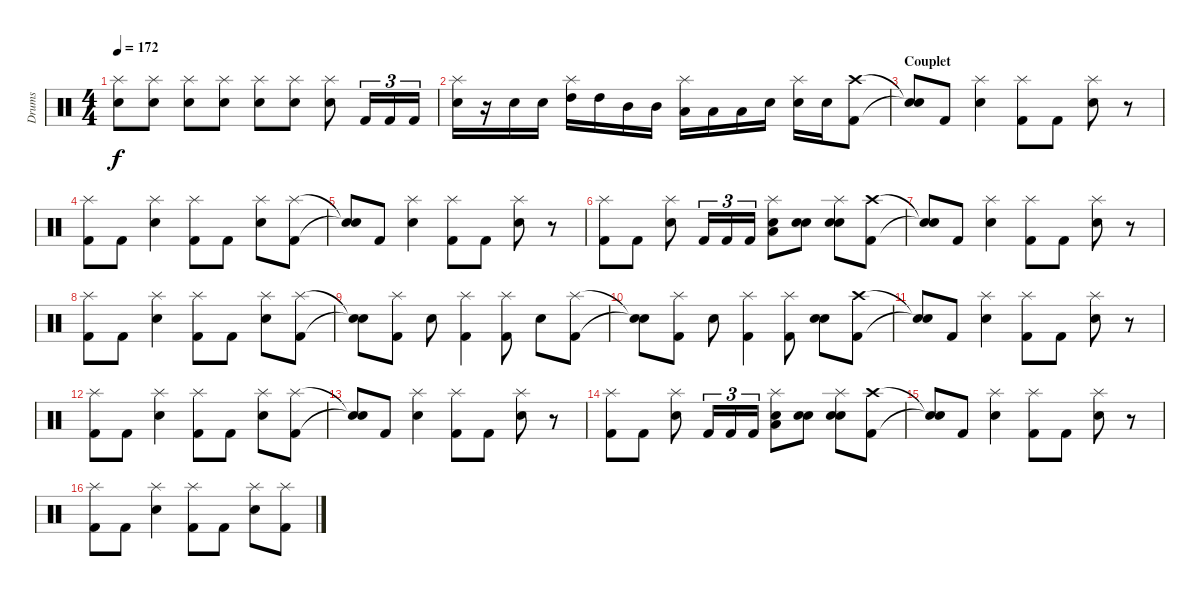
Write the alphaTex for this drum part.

\track ("Drums" "Drums") {instrument percussion}
\staff {score}
\articulation defaults
\ts (4 4)
\tempo 172
\clef neutral
\ks c
("Splash (hit)" "Electric Snare (hit)").8{dy f} ("Splash (hit)" "Electric Snare (hit)").8 ("Splash (hit)" "Electric Snare (hit)").8 ("Splash (hit)" "Electric Snare (hit)").8 ("Splash (hit)" "Electric Snare (hit)").8 ("Splash (hit)" "Electric Snare (hit)").8 ("Splash (hit)" "Electric Snare (hit)").8 "Kick (hit) 2".16{tu (3 2)} "Kick (hit) 2".16{tu (3 2)} "Kick (hit) 2".16{tu (3 2)} |
("Splash (hit)" "Electric Snare (hit)").16 r.16 "Electric Snare (hit)".16 "Electric Snare (hit)".16 ("Splash (hit)" "High Tom (hit)").16 "High Tom (hit)".16 "Mid Tom (hit)".16 "Mid Tom (hit)".16 ("Splash (hit)" "Low Tom (hit)").16 "Low Tom (hit)".16 "Low Tom (hit)".16 "Electric Snare (hit)".16 ("Splash (hit)" "Electric Snare (hit)").16 "Electric Snare (hit)".16 ("Crash high (hit)" "Kick (hit) 2").8 |
\section ("" "Couplet")
("Snare (hit)"{t} "Snare (hit)"{t}).8 "Kick (hit) 2".8 ("Splash (hit)" "Electric Snare (hit)").4 ("Splash (hit)" "Kick (hit) 2").8 "Kick (hit) 2".8 ("Splash (hit)" "Electric Snare (hit)").8 r.8 |
("Splash (hit)" "Kick (hit) 2").8 "Kick (hit) 2".8 ("Splash (hit)" "Electric Snare (hit)").4 ("Splash (hit)" "Kick (hit) 2").8 "Kick (hit) 2".8 ("Splash (hit)" "Electric Snare (hit)").8 ("Splash (hit)" "Kick (hit) 2").8 |
("Snare (hit)"{t} "Snare (hit)"{t}).8 "Kick (hit) 2".8 ("Splash (hit)" "Electric Snare (hit)").4 ("Splash (hit)" "Kick (hit) 2").8 "Kick (hit) 2".8 ("Splash (hit)" "Electric Snare (hit)").8 r.8 |
("Splash (hit)" "Kick (hit) 2").8 "Kick (hit) 2".8 ("Splash (hit)" "Electric Snare (hit)").8 "Kick (hit) 2".16{tu (3 2)} "Kick (hit) 2".16{tu (3 2)} "Kick (hit) 2".16{tu (3 2)} ("Splash (hit)" "Low Tom (hit)" "Electric Snare (hit)").8 ("Electric Snare (hit)" "Electric Snare (hit)").8 ("Splash (hit)" "Electric Snare (hit)" "Electric Snare (hit)").8 ("Crash high (hit)" "Kick (hit) 2").8 |
("Snare (hit)"{t} "Snare (hit)"{t}).8 "Kick (hit) 2".8 ("Splash (hit)" "Electric Snare (hit)").4 ("Splash (hit)" "Kick (hit) 2").8 "Kick (hit) 2".8 ("Splash (hit)" "Electric Snare (hit)").8 r.8 |
("Splash (hit)" "Kick (hit) 2").8 "Kick (hit) 2".8 ("Splash (hit)" "Electric Snare (hit)").4 ("Splash (hit)" "Kick (hit) 2").8 "Kick (hit) 2".8 ("Splash (hit)" "Electric Snare (hit)").8 ("Splash (hit)" "Kick (hit) 2").8 |
("Snare (hit)"{t} "Snare (hit)"{t}).8 ("Splash (hit)" "Kick (hit) 2").8 "Electric Snare (hit)".8 ("Splash (hit)" "Kick (hit) 2").4 ("Splash (hit)" "Kick (hit) 2").8 "Electric Snare (hit)".8 ("Splash (hit)" "Kick (hit) 2").8 |
("Snare (hit)"{t} "Snare (hit)"{t}).8 ("Splash (hit)" "Kick (hit) 2").8 "Electric Snare (hit)".8 ("Splash (hit)" "Kick (hit) 2").4 ("Splash (hit)" "Kick (hit) 2").8 ("Electric Snare (hit)" "Electric Snare (hit)").8 ("Crash high (hit)" "Kick (hit) 2").8 |
("Snare (hit)"{t} "Snare (hit)"{t}).8 "Kick (hit) 2".8 ("Splash (hit)" "Electric Snare (hit)").4 ("Splash (hit)" "Kick (hit) 2").8 "Kick (hit) 2".8 ("Splash (hit)" "Electric Snare (hit)").8 r.8 |
("Splash (hit)" "Kick (hit) 2").8 "Kick (hit) 2".8 ("Splash (hit)" "Electric Snare (hit)").4 ("Splash (hit)" "Kick (hit) 2").8 "Kick (hit) 2".8 ("Splash (hit)" "Electric Snare (hit)").8 ("Splash (hit)" "Kick (hit) 2").8 |
("Snare (hit)"{t} "Snare (hit)"{t}).8 "Kick (hit) 2".8 ("Splash (hit)" "Electric Snare (hit)").4 ("Splash (hit)" "Kick (hit) 2").8 "Kick (hit) 2".8 ("Splash (hit)" "Electric Snare (hit)").8 r.8 |
("Splash (hit)" "Kick (hit) 2").8 "Kick (hit) 2".8 ("Splash (hit)" "Electric Snare (hit)").8 "Kick (hit) 2".16{tu (3 2)} "Kick (hit) 2".16{tu (3 2)} "Kick (hit) 2".16{tu (3 2)} ("Splash (hit)" "Low Tom (hit)" "Electric Snare (hit)").8 ("Electric Snare (hit)" "Electric Snare (hit)").8 ("Splash (hit)" "Electric Snare (hit)" "Electric Snare (hit)").8 ("Crash high (hit)" "Kick (hit) 2").8 |
("Snare (hit)"{t} "Snare (hit)"{t}).8 "Kick (hit) 2".8 ("Splash (hit)" "Electric Snare (hit)").4 ("Splash (hit)" "Kick (hit) 2").8 "Kick (hit) 2".8 ("Splash (hit)" "Electric Snare (hit)").8 r.8 |
("Splash (hit)" "Kick (hit) 2").8 "Kick (hit) 2".8 ("Splash (hit)" "Electric Snare (hit)").4 ("Splash (hit)" "Kick (hit) 2").8 "Kick (hit) 2".8 ("Splash (hit)" "Electric Snare (hit)").8 ("Splash (hit)" "Kick (hit) 2").8
